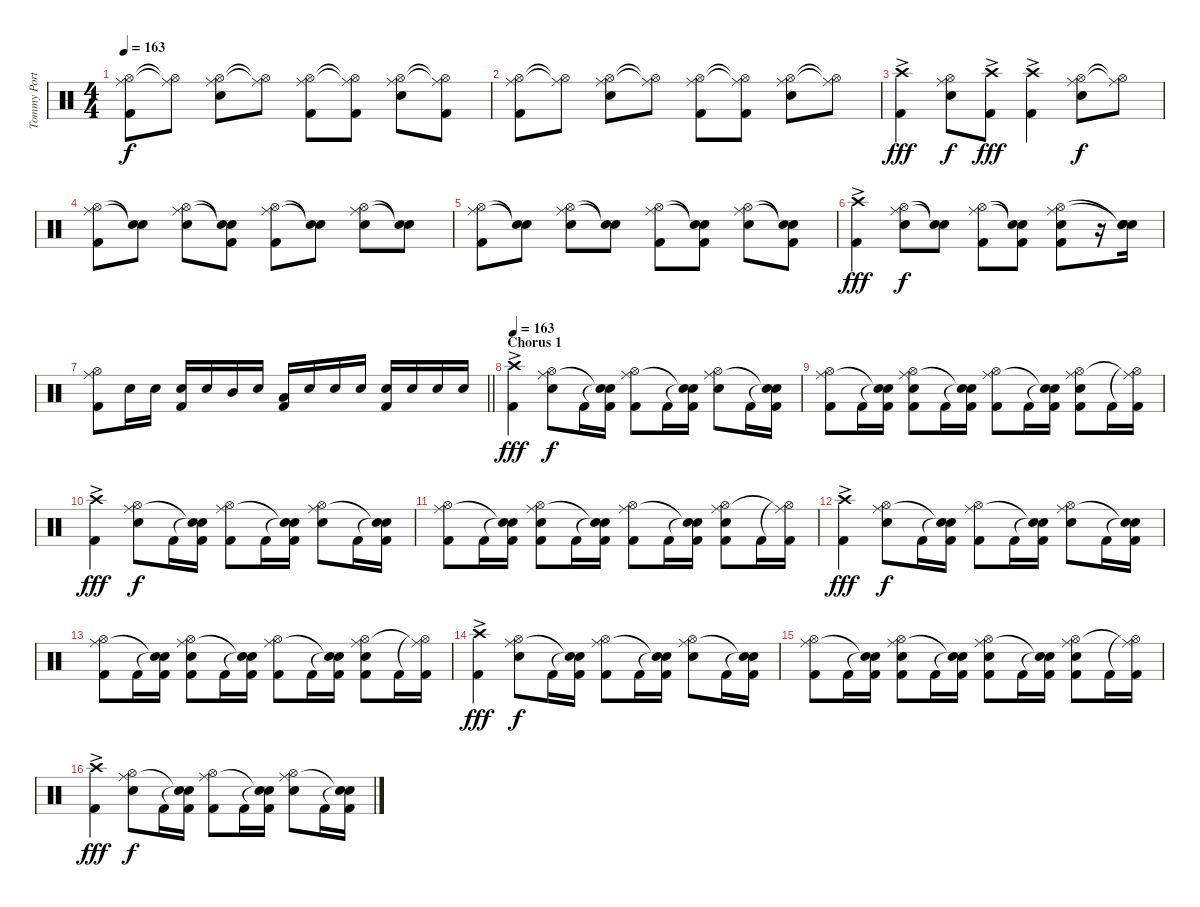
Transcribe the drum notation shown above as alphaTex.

\track ("Tommy Portimo" "Tommy Port") {instrument percussion}
\staff {score}
\articulation defaults
\ts (4 4)
\tempo 163
\clef neutral
\ks c
("Hi-Hat (open)" "Ride (middle)" "Kick (hit) 2").8{dy f} ("Hi-Hat (open)"{t} "Ride (middle)"{t}).8 ("Hi-Hat (open)" "Ride (middle)" "Electric Snare (hit)").8 ("Hi-Hat (open)"{t} "Ride (middle)"{t}).8 ("Hi-Hat (open)" "Ride (middle)" "Kick (hit) 2").8 ("Hi-Hat (open)"{t} "Ride (middle)"{t} "Kick (hit) 2").8 ("Hi-Hat (open)" "Ride (middle)" "Electric Snare (hit)").8 ("Hi-Hat (open)"{t} "Ride (middle)"{t} "Kick (hit) 2").8 |
("Hi-Hat (open)" "Ride (middle)" "Kick (hit) 2").8 ("Hi-Hat (open)"{t} "Ride (middle)"{t}).8 ("Hi-Hat (open)" "Ride (middle)" "Electric Snare (hit)").8 ("Hi-Hat (open)"{t} "Ride (middle)"{t}).8 ("Hi-Hat (open)" "Ride (middle)" "Kick (hit) 2").8 ("Hi-Hat (open)"{t} "Ride (middle)"{t} "Kick (hit) 2").8 ("Hi-Hat (open)" "Ride (middle)" "Electric Snare (hit)").8 ("Hi-Hat (open)"{t} "Ride (middle)"{t}).8 |
("Crash high (hit)"{ac} "Kick (hit) 2").4{dy fff} ("Hi-Hat (open)" "Ride (middle)" "Electric Snare (hit)").8{dy f} ("Crash high (hit)"{ac} "Kick (hit) 2").8{dy fff} ("Crash high (hit)"{ac} "Kick (hit) 2").4 ("Hi-Hat (open)" "Ride (middle)" "Electric Snare (hit)").8{dy f} ("Hi-Hat (open)"{t} "Ride (middle)"{t}).8 |
("Hi-Hat (open)" "Ride (middle)" "Kick (hit) 2").8 ("Snare (hit)"{t} "Snare (hit)"{t}).8 ("Hi-Hat (open)" "Ride (middle)" "Electric Snare (hit)").8 ("Snare (hit)"{t} "Snare (hit)"{t} "Kick (hit) 2").8 ("Hi-Hat (open)" "Ride (middle)" "Kick (hit) 2").8 ("Snare (hit)"{t} "Snare (hit)"{t}).8 ("Hi-Hat (open)" "Ride (middle)" "Electric Snare (hit)").8 ("Snare (hit)"{t} "Snare (hit)"{t}).8 |
("Hi-Hat (open)" "Ride (middle)" "Kick (hit) 2").8 ("Snare (hit)"{t} "Snare (hit)"{t}).8 ("Hi-Hat (open)" "Ride (middle)" "Electric Snare (hit)").8 ("Snare (hit)"{t} "Snare (hit)"{t}).8 ("Hi-Hat (open)" "Ride (middle)" "Kick (hit) 2").8 ("Snare (hit)"{t} "Snare (hit)"{t} "Kick (hit) 2").8 ("Hi-Hat (open)" "Ride (middle)" "Electric Snare (hit)").8 ("Snare (hit)"{t} "Snare (hit)"{t} "Kick (hit) 2").8 |
("Crash high (hit)"{ac} "Kick (hit) 2").4{dy fff} ("Hi-Hat (open)" "Ride (middle)" "Electric Snare (hit)").8{dy f} ("Snare (hit)"{t} "Snare (hit)"{t}).8 ("Hi-Hat (open)" "Ride (middle)" "Kick (hit) 2").8 ("Snare (hit)"{t} "Snare (hit)"{t} "Kick (hit) 2").8 ("Hi-Hat (open)" "Ride (middle)" "Electric Snare (hit)" "Kick (hit) 2").8 r.16 ("Snare (hit)"{t} "Snare (hit)"{t} "Electric Snare (hit)").16 |
\barLineRight lightlight
("Hi-Hat (open)" "Ride (middle)" "Kick (hit) 2").8 "Electric Snare (hit)".16 "Electric Snare (hit)".16 ("Electric Snare (hit)" "Kick (hit) 2").16 "Electric Snare (hit)".16 "Mid Tom (hit)".16 "Electric Snare (hit)".16 ("Low Tom (hit)" "Kick (hit) 2").16 "Electric Snare (hit)".16 "Electric Snare (hit)".16 "Electric Snare (hit)".16 ("Electric Snare (hit)" "Kick (hit) 2").16 "Electric Snare (hit)".16 "Electric Snare (hit)".16 "Electric Snare (hit)".16 |
\section ("" "Chorus 1")
\tempo 163
("Crash high (hit)"{ac} "Kick (hit) 2").4{dy fff} ("Hi-Hat (open)" "Ride (middle)" "Electric Snare (hit)").8{dy f} "Kick (hit) 2".16 ("Snare (hit)"{t} "Snare (hit)"{t} "Kick (hit) 2").16 ("Hi-Hat (open)" "Ride (middle)" "Kick (hit) 2").8 "Kick (hit) 2".16 ("Snare (hit)"{t} "Snare (hit)"{t} "Kick (hit) 2").16 ("Hi-Hat (open)" "Ride (middle)" "Electric Snare (hit)").8 "Kick (hit) 2".16 ("Snare (hit)"{t} "Snare (hit)"{t} "Kick (hit) 2").16 |
("Hi-Hat (open)" "Ride (middle)" "Kick (hit) 2").8 "Kick (hit) 2".16 ("Snare (hit)"{t} "Snare (hit)"{t} "Kick (hit) 2").16 ("Hi-Hat (open)" "Ride (middle)" "Electric Snare (hit)" "Kick (hit) 2").8 "Kick (hit) 2".16 ("Snare (hit)"{t} "Snare (hit)"{t} "Kick (hit) 2").16 ("Hi-Hat (open)" "Ride (middle)" "Kick (hit) 2").8 "Kick (hit) 2".16 ("Snare (hit)"{t} "Snare (hit)"{t} "Kick (hit) 2").16 ("Hi-Hat (open)" "Ride (middle)" "Electric Snare (hit)" "Kick (hit) 2").8 "Kick (hit) 2".16 ("Hi-Hat (open)"{t} "Ride (middle)"{t} "Kick (hit) 2").16 |
("Crash high (hit)"{ac} "Kick (hit) 2").4{dy fff} ("Hi-Hat (open)" "Ride (middle)" "Electric Snare (hit)").8{dy f} "Kick (hit) 2".16 ("Snare (hit)"{t} "Snare (hit)"{t} "Kick (hit) 2").16 ("Hi-Hat (open)" "Ride (middle)" "Kick (hit) 2").8 "Kick (hit) 2".16 ("Snare (hit)"{t} "Snare (hit)"{t} "Kick (hit) 2").16 ("Hi-Hat (open)" "Ride (middle)" "Electric Snare (hit)").8 "Kick (hit) 2".16 ("Snare (hit)"{t} "Snare (hit)"{t} "Kick (hit) 2").16 |
("Hi-Hat (open)" "Ride (middle)" "Kick (hit) 2").8 "Kick (hit) 2".16 ("Snare (hit)"{t} "Snare (hit)"{t} "Kick (hit) 2").16 ("Hi-Hat (open)" "Ride (middle)" "Electric Snare (hit)" "Kick (hit) 2").8 "Kick (hit) 2".16 ("Snare (hit)"{t} "Snare (hit)"{t} "Kick (hit) 2").16 ("Hi-Hat (open)" "Ride (middle)" "Kick (hit) 2").8 "Kick (hit) 2".16 ("Snare (hit)"{t} "Snare (hit)"{t} "Kick (hit) 2").16 ("Hi-Hat (open)" "Ride (middle)" "Electric Snare (hit)" "Kick (hit) 2").8 "Kick (hit) 2".16 ("Hi-Hat (open)"{t} "Ride (middle)"{t} "Kick (hit) 2").16 |
("Crash high (hit)"{ac} "Kick (hit) 2").4{dy fff} ("Hi-Hat (open)" "Ride (middle)" "Electric Snare (hit)").8{dy f} "Kick (hit) 2".16 ("Snare (hit)"{t} "Snare (hit)"{t} "Kick (hit) 2").16 ("Hi-Hat (open)" "Ride (middle)" "Kick (hit) 2").8 "Kick (hit) 2".16 ("Snare (hit)"{t} "Snare (hit)"{t} "Kick (hit) 2").16 ("Hi-Hat (open)" "Ride (middle)" "Electric Snare (hit)").8 "Kick (hit) 2".16 ("Snare (hit)"{t} "Snare (hit)"{t} "Kick (hit) 2").16 |
("Hi-Hat (open)" "Ride (middle)" "Kick (hit) 2").8 "Kick (hit) 2".16 ("Snare (hit)"{t} "Snare (hit)"{t} "Kick (hit) 2").16 ("Hi-Hat (open)" "Ride (middle)" "Electric Snare (hit)" "Kick (hit) 2").8 "Kick (hit) 2".16 ("Snare (hit)"{t} "Snare (hit)"{t} "Kick (hit) 2").16 ("Hi-Hat (open)" "Ride (middle)" "Kick (hit) 2").8 "Kick (hit) 2".16 ("Snare (hit)"{t} "Snare (hit)"{t} "Kick (hit) 2").16 ("Hi-Hat (open)" "Ride (middle)" "Electric Snare (hit)" "Kick (hit) 2").8 "Kick (hit) 2".16 ("Hi-Hat (open)"{t} "Ride (middle)"{t} "Kick (hit) 2").16 |
("Crash high (hit)"{ac} "Kick (hit) 2").4{dy fff} ("Hi-Hat (open)" "Ride (middle)" "Electric Snare (hit)").8{dy f} "Kick (hit) 2".16 ("Snare (hit)"{t} "Snare (hit)"{t} "Kick (hit) 2").16 ("Hi-Hat (open)" "Ride (middle)" "Kick (hit) 2").8 "Kick (hit) 2".16 ("Snare (hit)"{t} "Snare (hit)"{t} "Kick (hit) 2").16 ("Hi-Hat (open)" "Ride (middle)" "Electric Snare (hit)").8 "Kick (hit) 2".16 ("Snare (hit)"{t} "Snare (hit)"{t} "Kick (hit) 2").16 |
("Hi-Hat (open)" "Ride (middle)" "Kick (hit) 2").8 "Kick (hit) 2".16 ("Snare (hit)"{t} "Snare (hit)"{t} "Kick (hit) 2").16 ("Hi-Hat (open)" "Ride (middle)" "Electric Snare (hit)" "Kick (hit) 2").8 "Kick (hit) 2".16 ("Snare (hit)"{t} "Snare (hit)"{t} "Kick (hit) 2").16 ("Hi-Hat (open)" "Ride (middle)" "Electric Snare (hit)" "Kick (hit) 2").8 "Kick (hit) 2".16 ("Snare (hit)"{t} "Snare (hit)"{t} "Kick (hit) 2").16 ("Hi-Hat (open)" "Ride (middle)" "Electric Snare (hit)" "Kick (hit) 2").8 "Kick (hit) 2".16 ("Hi-Hat (open)"{t} "Ride (middle)"{t} "Kick (hit) 2").16 |
("Crash high (hit)"{ac} "Kick (hit) 2").4{dy fff} ("Hi-Hat (open)" "Ride (middle)" "Electric Snare (hit)").8{dy f} "Kick (hit) 2".16 ("Snare (hit)"{t} "Snare (hit)"{t} "Kick (hit) 2").16 ("Hi-Hat (open)" "Ride (middle)" "Kick (hit) 2").8 "Kick (hit) 2".16 ("Snare (hit)"{t} "Snare (hit)"{t} "Kick (hit) 2").16 ("Hi-Hat (open)" "Ride (middle)" "Electric Snare (hit)").8 "Kick (hit) 2".16 ("Snare (hit)"{t} "Snare (hit)"{t} "Kick (hit) 2").16
